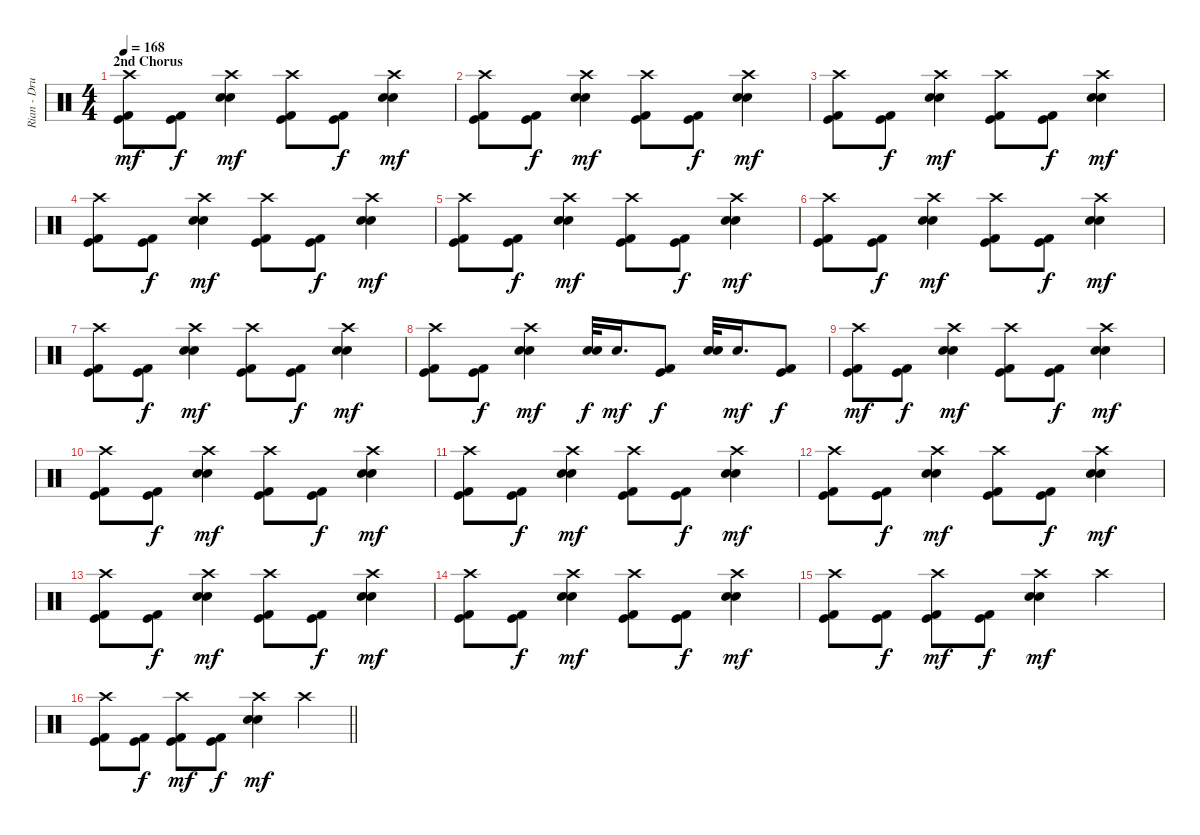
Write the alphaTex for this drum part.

\track ("Rian - Drums" "Rian - Dru") {instrument percussion}
\staff {score}
\articulation defaults
\ts (4 4)
\section ("" "2nd Chorus")
\tempo 168
\clef neutral
\ks c
("Kick (hit) 2" "Kick (hit)" "Crash high (hit)").8{dy mf} ("Kick (hit) 2" "Kick (hit)").8{dy f} ("Electric Snare (hit)" "Electric Snare (hit)" "Crash high (hit)").4{dy mf} ("Kick (hit) 2" "Kick (hit)" "Crash high (hit)").8 ("Kick (hit) 2" "Kick (hit)").8{dy f} ("Electric Snare (hit)" "Electric Snare (hit)" "Crash high (hit)").4{dy mf} |
("Kick (hit) 2" "Kick (hit)" "Crash high (hit)").8 ("Kick (hit) 2" "Kick (hit)").8{dy f} ("Electric Snare (hit)" "Electric Snare (hit)" "Crash high (hit)").4{dy mf} ("Kick (hit) 2" "Kick (hit)" "Crash high (hit)").8 ("Kick (hit) 2" "Kick (hit)").8{dy f} ("Electric Snare (hit)" "Electric Snare (hit)" "Crash high (hit)").4{dy mf} |
("Kick (hit) 2" "Kick (hit)" "Crash high (hit)").8 ("Kick (hit) 2" "Kick (hit)").8{dy f} ("Electric Snare (hit)" "Electric Snare (hit)" "Crash high (hit)").4{dy mf} ("Kick (hit) 2" "Kick (hit)" "Crash high (hit)").8 ("Kick (hit) 2" "Kick (hit)").8{dy f} ("Electric Snare (hit)" "Electric Snare (hit)" "Crash high (hit)").4{dy mf} |
("Kick (hit) 2" "Kick (hit)" "Crash high (hit)").8 ("Kick (hit) 2" "Kick (hit)").8{dy f} ("Electric Snare (hit)" "Electric Snare (hit)" "Crash high (hit)").4{dy mf} ("Kick (hit) 2" "Kick (hit)" "Crash high (hit)").8 ("Kick (hit) 2" "Kick (hit)").8{dy f} ("Electric Snare (hit)" "Electric Snare (hit)" "Crash high (hit)").4{dy mf} |
("Kick (hit) 2" "Kick (hit)" "Crash high (hit)").8 ("Kick (hit) 2" "Kick (hit)").8{dy f} ("Electric Snare (hit)" "Electric Snare (hit)" "Crash high (hit)").4{dy mf} ("Kick (hit) 2" "Kick (hit)" "Crash high (hit)").8 ("Kick (hit) 2" "Kick (hit)").8{dy f} ("Electric Snare (hit)" "Electric Snare (hit)" "Crash high (hit)").4{dy mf} |
("Kick (hit) 2" "Kick (hit)" "Crash high (hit)").8 ("Kick (hit) 2" "Kick (hit)").8{dy f} ("Electric Snare (hit)" "Electric Snare (hit)" "Crash high (hit)").4{dy mf} ("Kick (hit) 2" "Kick (hit)" "Crash high (hit)").8 ("Kick (hit) 2" "Kick (hit)").8{dy f} ("Electric Snare (hit)" "Electric Snare (hit)" "Crash high (hit)").4{dy mf} |
("Kick (hit) 2" "Kick (hit)" "Crash high (hit)").8 ("Kick (hit) 2" "Kick (hit)").8{dy f} ("Electric Snare (hit)" "Electric Snare (hit)" "Crash high (hit)").4{dy mf} ("Kick (hit) 2" "Kick (hit)" "Crash high (hit)").8 ("Kick (hit) 2" "Kick (hit)").8{dy f} ("Electric Snare (hit)" "Electric Snare (hit)" "Crash high (hit)").4{dy mf} |
("Kick (hit) 2" "Kick (hit)" "Crash high (hit)").8 ("Kick (hit) 2" "Kick (hit)").8{dy f} ("Electric Snare (hit)" "Electric Snare (hit)" "Crash high (hit)").4{dy mf} ("Electric Snare (hit)" "Electric Snare (hit)").32{dy f} "Electric Snare (hit)".16{d dy mf} ("Kick (hit) 2" "Kick (hit)").8{dy f} ("Electric Snare (hit)" "Electric Snare (hit)").32 "Electric Snare (hit)".16{d dy mf} ("Kick (hit) 2" "Kick (hit)").8{dy f} |
("Kick (hit) 2" "Kick (hit)" "Crash high (hit)").8{dy mf} ("Kick (hit) 2" "Kick (hit)").8{dy f} ("Electric Snare (hit)" "Electric Snare (hit)" "Crash high (hit)").4{dy mf} ("Kick (hit) 2" "Kick (hit)" "Crash high (hit)").8 ("Kick (hit) 2" "Kick (hit)").8{dy f} ("Electric Snare (hit)" "Electric Snare (hit)" "Crash high (hit)").4{dy mf} |
("Kick (hit) 2" "Kick (hit)" "Crash high (hit)").8 ("Kick (hit) 2" "Kick (hit)").8{dy f} ("Electric Snare (hit)" "Electric Snare (hit)" "Crash high (hit)").4{dy mf} ("Kick (hit) 2" "Kick (hit)" "Crash high (hit)").8 ("Kick (hit) 2" "Kick (hit)").8{dy f} ("Electric Snare (hit)" "Electric Snare (hit)" "Crash high (hit)").4{dy mf} |
("Kick (hit) 2" "Kick (hit)" "Crash high (hit)").8 ("Kick (hit) 2" "Kick (hit)").8{dy f} ("Electric Snare (hit)" "Electric Snare (hit)" "Crash high (hit)").4{dy mf} ("Kick (hit) 2" "Kick (hit)" "Crash high (hit)").8 ("Kick (hit) 2" "Kick (hit)").8{dy f} ("Electric Snare (hit)" "Electric Snare (hit)" "Crash high (hit)").4{dy mf} |
("Kick (hit) 2" "Kick (hit)" "Crash high (hit)").8 ("Kick (hit) 2" "Kick (hit)").8{dy f} ("Electric Snare (hit)" "Electric Snare (hit)" "Crash high (hit)").4{dy mf} ("Kick (hit) 2" "Kick (hit)" "Crash high (hit)").8 ("Kick (hit) 2" "Kick (hit)").8{dy f} ("Electric Snare (hit)" "Electric Snare (hit)" "Crash high (hit)").4{dy mf} |
("Kick (hit) 2" "Kick (hit)" "Crash high (hit)").8 ("Kick (hit) 2" "Kick (hit)").8{dy f} ("Electric Snare (hit)" "Electric Snare (hit)" "Crash high (hit)").4{dy mf} ("Kick (hit) 2" "Kick (hit)" "Crash high (hit)").8 ("Kick (hit) 2" "Kick (hit)").8{dy f} ("Electric Snare (hit)" "Electric Snare (hit)" "Crash high (hit)").4{dy mf} |
("Kick (hit) 2" "Kick (hit)" "Crash high (hit)").8 ("Kick (hit) 2" "Kick (hit)").8{dy f} ("Electric Snare (hit)" "Electric Snare (hit)" "Crash high (hit)").4{dy mf} ("Kick (hit) 2" "Kick (hit)" "Crash high (hit)").8 ("Kick (hit) 2" "Kick (hit)").8{dy f} ("Electric Snare (hit)" "Electric Snare (hit)" "Crash high (hit)").4{dy mf} |
("Kick (hit) 2" "Kick (hit)" "Crash high (hit)").8 ("Kick (hit) 2" "Kick (hit)").8{dy f} ("Kick (hit) 2" "Kick (hit)" "Crash high (hit)").8{dy mf} ("Kick (hit) 2" "Kick (hit)").8{dy f} ("Electric Snare (hit)" "Electric Snare (hit)" "Crash high (hit)").4{dy mf} "Crash high (hit)".4 |
\barLineRight lightlight
("Kick (hit) 2" "Kick (hit)" "Crash high (hit)").8 ("Kick (hit) 2" "Kick (hit)").8{dy f} ("Kick (hit) 2" "Kick (hit)" "Crash high (hit)").8{dy mf} ("Kick (hit) 2" "Kick (hit)").8{dy f} ("Electric Snare (hit)" "Electric Snare (hit)" "Crash high (hit)").4{dy mf} "Crash high (hit)".4
